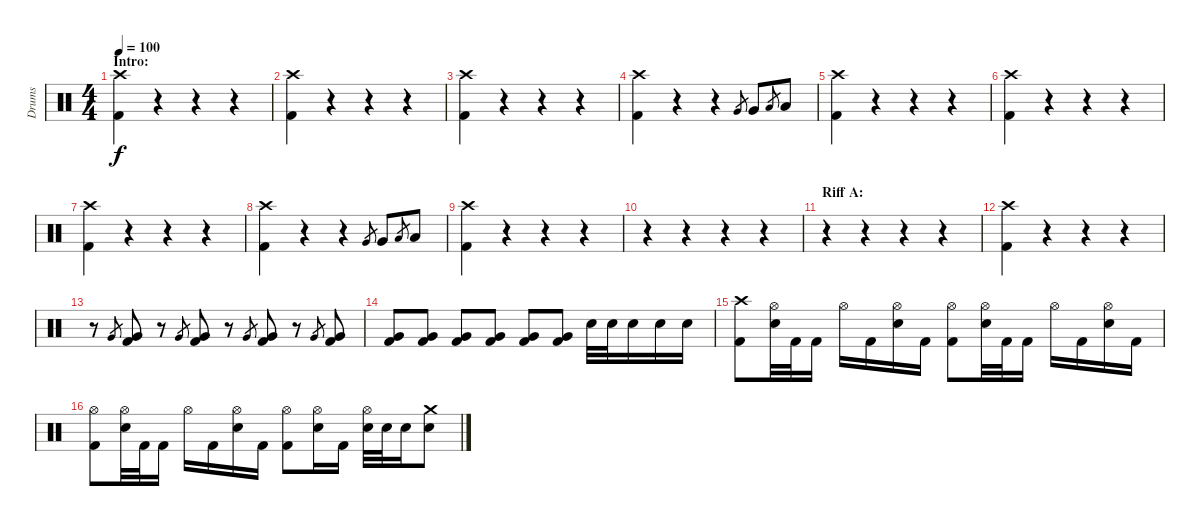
\track ("Drums" "Drums") {instrument percussion}
\staff {score}
\articulation defaults
\ts (4 4)
\section ("" "Intro:")
\tempo 100
\clef neutral
\ks c
("Crash high (hit)" "Kick (hit) 2").4{dy f} r.4 r.4 r.4 |
("Crash high (hit)" "Kick (hit) 2").4 r.4 r.4 r.4 |
("Crash high (hit)" "Kick (hit) 2").4 r.4 r.4 r.4 |
("Crash high (hit)" "Kick (hit) 2").4 r.4 r.4 "Very Low Tom (hit)".8{gr} "Very Low Tom (hit)".8 "Low Floor Tom (hit)".8{gr} "Low Floor Tom (hit)".8 |
("Crash high (hit)" "Kick (hit) 2").4 r.4 r.4 r.4 |
("Crash high (hit)" "Kick (hit) 2").4 r.4 r.4 r.4 |
("Crash high (hit)" "Kick (hit) 2").4 r.4 r.4 r.4 |
("Crash high (hit)" "Kick (hit) 2").4 r.4 r.4 "Very Low Tom (hit)".8{gr} "Very Low Tom (hit)".8 "Low Floor Tom (hit)".8{gr} "Low Floor Tom (hit)".8 |
("Crash high (hit)" "Kick (hit) 2").4 r.4 r.4 r.4 |
r.4 r.4 r.4 r.4 |
\section ("" "Riff A:")
r.4 r.4 r.4 r.4 |
("Crash high (hit)" "Kick (hit) 2").4 r.4 r.4 r.4 |
r.8 "Very Low Tom (hit)".8{gr} ("Very Low Tom (hit)" "Kick (hit) 2").8 r.8 "Very Low Tom (hit)".8{gr} ("Very Low Tom (hit)" "Kick (hit) 2").8 r.8 "Very Low Tom (hit)".8{gr} ("Very Low Tom (hit)" "Kick (hit) 2").8 r.8 "Very Low Tom (hit)".8{gr} ("Very Low Tom (hit)" "Kick (hit) 2").8 |
("Very Low Tom (hit)" "Kick (hit) 2").8 ("Very Low Tom (hit)" "Kick (hit) 2").8 ("Very Low Tom (hit)" "Kick (hit) 2").8 ("Very Low Tom (hit)" "Kick (hit) 2").8 ("Very Low Tom (hit)" "Kick (hit) 2").8 ("Very Low Tom (hit)" "Kick (hit) 2").8 "Electric Snare (hit)".32 "Electric Snare (hit)".32 "Electric Snare (hit)".16 "Electric Snare (hit)".16 "Electric Snare (hit)".16 |
("Crash high (hit)" "Kick (hit) 2").8 ("Hi-Hat (open)" "Electric Snare (hit)").32 "Kick (hit) 2".32 "Kick (hit) 2".16 "Hi-Hat (open)".16 "Kick (hit) 2".16 ("Hi-Hat (open)" "Electric Snare (hit)").16 "Kick (hit) 2".16 ("Hi-Hat (open)" "Kick (hit) 2").8 ("Hi-Hat (open)" "Electric Snare (hit)").32 "Kick (hit) 2".32 "Kick (hit) 2".16 "Hi-Hat (open)".16 "Kick (hit) 2".16 ("Hi-Hat (open)" "Electric Snare (hit)").16 "Kick (hit) 2".16 |
("Hi-Hat (open)" "Kick (hit) 2").8 ("Hi-Hat (open)" "Electric Snare (hit)").32 "Kick (hit) 2".32 "Kick (hit) 2".16 "Hi-Hat (open)".16 "Kick (hit) 2".16 ("Hi-Hat (open)" "Electric Snare (hit)").16 "Kick (hit) 2".16 ("Hi-Hat (open)" "Kick (hit) 2").8 ("Hi-Hat (open)" "Electric Snare (hit)").16 "Kick (hit) 2".16 ("Hi-Hat (open)" "Electric Snare (hit)").32 "Electric Snare (hit)".32 "Electric Snare (hit)".16 ("Crash medium (hit)" "Electric Snare (hit)").8
